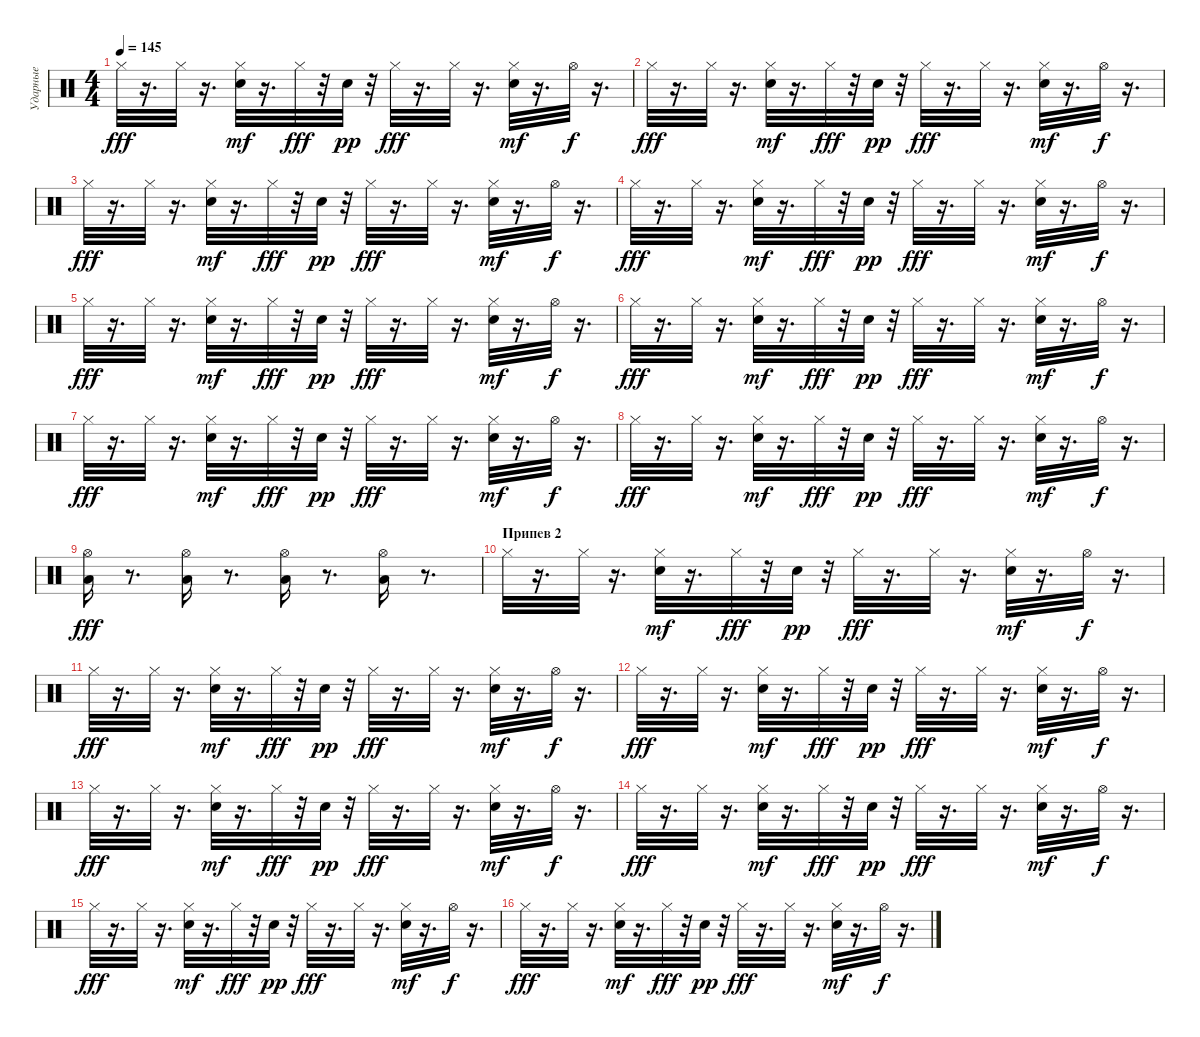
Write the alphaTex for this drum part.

\track ("Ударные" "Ударные") {instrument percussion}
\staff {score}
\articulation defaults
\ts (4 4)
\tempo 145
\clef neutral
\ks c "Hi-Hat (closed)".32{dy fff}
r.16{d} "Hi-Hat (closed)".32 r.16{d} ("Hi-Hat (closed)" "Electric Snare (hit)").32{dy mf} r.16{d} "Hi-Hat (closed)".32{dy fff} r.32 "Electric Snare (hit)".32{dy pp} r.32 "Hi-Hat (closed)".32{dy fff} r.16{d} "Hi-Hat (closed)".32 r.16{d} ("Hi-Hat (closed)" "Electric Snare (hit)").32{dy mf} r.16{d} "Hi-Hat (open)".32{dy f} r.16{d} |
"Hi-Hat (closed)".32{dy fff} r.16{d} "Hi-Hat (closed)".32 r.16{d} ("Hi-Hat (closed)" "Electric Snare (hit)").32{dy mf} r.16{d} "Hi-Hat (closed)".32{dy fff} r.32 "Electric Snare (hit)".32{dy pp} r.32 "Hi-Hat (closed)".32{dy fff} r.16{d} "Hi-Hat (closed)".32 r.16{d} ("Hi-Hat (closed)" "Electric Snare (hit)").32{dy mf} r.16{d} "Hi-Hat (open)".32{dy f} r.16{d} |
"Hi-Hat (closed)".32{dy fff} r.16{d} "Hi-Hat (closed)".32 r.16{d} ("Hi-Hat (closed)" "Electric Snare (hit)").32{dy mf} r.16{d} "Hi-Hat (closed)".32{dy fff} r.32 "Electric Snare (hit)".32{dy pp} r.32 "Hi-Hat (closed)".32{dy fff} r.16{d} "Hi-Hat (closed)".32 r.16{d} ("Hi-Hat (closed)" "Electric Snare (hit)").32{dy mf} r.16{d} "Hi-Hat (open)".32{dy f} r.16{d} |
"Hi-Hat (closed)".32{dy fff} r.16{d} "Hi-Hat (closed)".32 r.16{d} ("Hi-Hat (closed)" "Electric Snare (hit)").32{dy mf} r.16{d} "Hi-Hat (closed)".32{dy fff} r.32 "Electric Snare (hit)".32{dy pp} r.32 "Hi-Hat (closed)".32{dy fff} r.16{d} "Hi-Hat (closed)".32 r.16{d} ("Hi-Hat (closed)" "Electric Snare (hit)").32{dy mf} r.16{d} "Hi-Hat (open)".32{dy f} r.16{d} |
"Hi-Hat (closed)".32{dy fff} r.16{d} "Hi-Hat (closed)".32 r.16{d} ("Hi-Hat (closed)" "Electric Snare (hit)").32{dy mf} r.16{d} "Hi-Hat (closed)".32{dy fff} r.32 "Electric Snare (hit)".32{dy pp} r.32 "Hi-Hat (closed)".32{dy fff} r.16{d} "Hi-Hat (closed)".32 r.16{d} ("Hi-Hat (closed)" "Electric Snare (hit)").32{dy mf} r.16{d} "Hi-Hat (open)".32{dy f} r.16{d} |
"Hi-Hat (closed)".32{dy fff} r.16{d} "Hi-Hat (closed)".32 r.16{d} ("Hi-Hat (closed)" "Electric Snare (hit)").32{dy mf} r.16{d} "Hi-Hat (closed)".32{dy fff} r.32 "Electric Snare (hit)".32{dy pp} r.32 "Hi-Hat (closed)".32{dy fff} r.16{d} "Hi-Hat (closed)".32 r.16{d} ("Hi-Hat (closed)" "Electric Snare (hit)").32{dy mf} r.16{d} "Hi-Hat (open)".32{dy f} r.16{d} |
"Hi-Hat (closed)".32{dy fff} r.16{d} "Hi-Hat (closed)".32 r.16{d} ("Hi-Hat (closed)" "Electric Snare (hit)").32{dy mf} r.16{d} "Hi-Hat (closed)".32{dy fff} r.32 "Electric Snare (hit)".32{dy pp} r.32 "Hi-Hat (closed)".32{dy fff} r.16{d} "Hi-Hat (closed)".32 r.16{d} ("Hi-Hat (closed)" "Electric Snare (hit)").32{dy mf} r.16{d} "Hi-Hat (open)".32{dy f} r.16{d} |
"Hi-Hat (closed)".32{dy fff} r.16{d} "Hi-Hat (closed)".32 r.16{d} ("Hi-Hat (closed)" "Electric Snare (hit)").32{dy mf} r.16{d} "Hi-Hat (closed)".32{dy fff} r.32 "Electric Snare (hit)".32{dy pp} r.32 "Hi-Hat (closed)".32{dy fff} r.16{d} "Hi-Hat (closed)".32 r.16{d} ("Hi-Hat (closed)" "Electric Snare (hit)").32{dy mf} r.16{d} "Hi-Hat (open)".32{dy f} r.16{d} |
("Low Tom (hit)" "Hi-Hat (open)").16{dy fff} r.8{d} ("Low Tom (hit)" "Hi-Hat (open)").16 r.8{d} ("Low Tom (hit)" "Hi-Hat (open)").16 r.8{d} ("Low Tom (hit)" "Hi-Hat (open)").16 r.8{d} |
\section ("" "Припев 2")
"Hi-Hat (closed)".32 r.16{d} "Hi-Hat (closed)".32 r.16{d} ("Hi-Hat (closed)" "Electric Snare (hit)").32{dy mf} r.16{d} "Hi-Hat (closed)".32{dy fff} r.32 "Electric Snare (hit)".32{dy pp} r.32 "Hi-Hat (closed)".32{dy fff} r.16{d} "Hi-Hat (closed)".32 r.16{d} ("Hi-Hat (closed)" "Electric Snare (hit)").32{dy mf} r.16{d} "Hi-Hat (open)".32{dy f} r.16{d} |
"Hi-Hat (closed)".32{dy fff} r.16{d} "Hi-Hat (closed)".32 r.16{d} ("Hi-Hat (closed)" "Electric Snare (hit)").32{dy mf} r.16{d} "Hi-Hat (closed)".32{dy fff} r.32 "Electric Snare (hit)".32{dy pp} r.32 "Hi-Hat (closed)".32{dy fff} r.16{d} "Hi-Hat (closed)".32 r.16{d} ("Hi-Hat (closed)" "Electric Snare (hit)").32{dy mf} r.16{d} "Hi-Hat (open)".32{dy f} r.16{d} |
"Hi-Hat (closed)".32{dy fff} r.16{d} "Hi-Hat (closed)".32 r.16{d} ("Hi-Hat (closed)" "Electric Snare (hit)").32{dy mf} r.16{d} "Hi-Hat (closed)".32{dy fff} r.32 "Electric Snare (hit)".32{dy pp} r.32 "Hi-Hat (closed)".32{dy fff} r.16{d} "Hi-Hat (closed)".32 r.16{d} ("Hi-Hat (closed)" "Electric Snare (hit)").32{dy mf} r.16{d} "Hi-Hat (open)".32{dy f} r.16{d} |
"Hi-Hat (closed)".32{dy fff} r.16{d} "Hi-Hat (closed)".32 r.16{d} ("Hi-Hat (closed)" "Electric Snare (hit)").32{dy mf} r.16{d} "Hi-Hat (closed)".32{dy fff} r.32 "Electric Snare (hit)".32{dy pp} r.32 "Hi-Hat (closed)".32{dy fff} r.16{d} "Hi-Hat (closed)".32 r.16{d} ("Hi-Hat (closed)" "Electric Snare (hit)").32{dy mf} r.16{d} "Hi-Hat (open)".32{dy f} r.16{d} |
"Hi-Hat (closed)".32{dy fff} r.16{d} "Hi-Hat (closed)".32 r.16{d} ("Hi-Hat (closed)" "Electric Snare (hit)").32{dy mf} r.16{d} "Hi-Hat (closed)".32{dy fff} r.32 "Electric Snare (hit)".32{dy pp} r.32 "Hi-Hat (closed)".32{dy fff} r.16{d} "Hi-Hat (closed)".32 r.16{d} ("Hi-Hat (closed)" "Electric Snare (hit)").32{dy mf} r.16{d} "Hi-Hat (open)".32{dy f} r.16{d} |
"Hi-Hat (closed)".32{dy fff} r.16{d} "Hi-Hat (closed)".32 r.16{d} ("Hi-Hat (closed)" "Electric Snare (hit)").32{dy mf} r.16{d} "Hi-Hat (closed)".32{dy fff} r.32 "Electric Snare (hit)".32{dy pp} r.32 "Hi-Hat (closed)".32{dy fff} r.16{d} "Hi-Hat (closed)".32 r.16{d} ("Hi-Hat (closed)" "Electric Snare (hit)").32{dy mf} r.16{d} "Hi-Hat (open)".32{dy f} r.16{d} |
"Hi-Hat (closed)".32{dy fff} r.16{d} "Hi-Hat (closed)".32 r.16{d} ("Hi-Hat (closed)" "Electric Snare (hit)").32{dy mf} r.16{d} "Hi-Hat (closed)".32{dy fff} r.32 "Electric Snare (hit)".32{dy pp} r.32 "Hi-Hat (closed)".32{dy fff} r.16{d} "Hi-Hat (closed)".32 r.16{d} ("Hi-Hat (closed)" "Electric Snare (hit)").32{dy mf} r.16{d} "Hi-Hat (open)".32{dy f} r.16{d}
